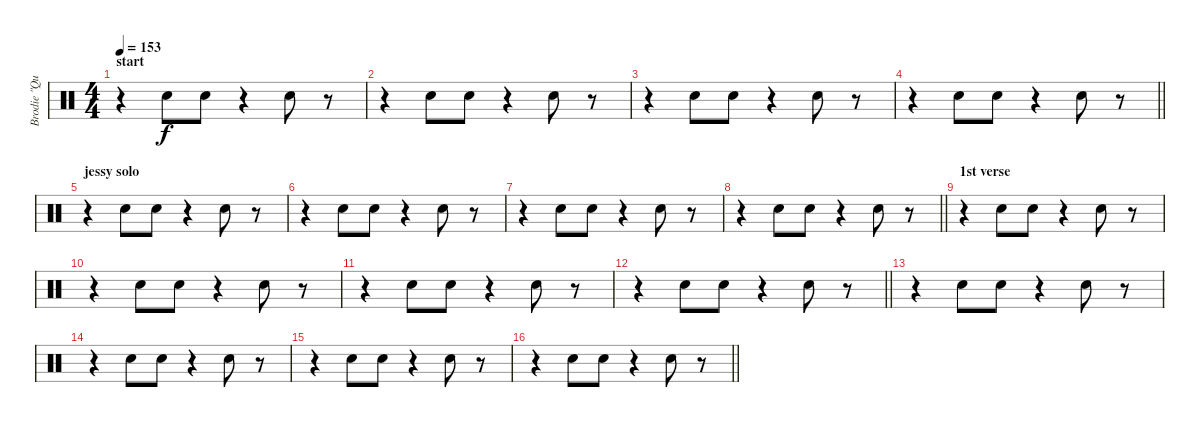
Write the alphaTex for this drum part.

\track ("Brodie \"Queen Be\" Dalle" "Brodie \"Qu") {instrument percussion}
\staff {score}
\articulation defaults
\ts (4 4)
\section ("" "start")
\tempo 153
\clef neutral
\ks c
r.4{dy f} "Hand Clap (hit)".8 "Hand Clap (hit)".8 r.4 "Hand Clap (hit)".8 r.8 |
r.4 "Hand Clap (hit)".8 "Hand Clap (hit)".8 r.4 "Hand Clap (hit)".8 r.8 |
r.4 "Hand Clap (hit)".8 "Hand Clap (hit)".8 r.4 "Hand Clap (hit)".8 r.8 |
\barLineRight lightlight
r.4 "Hand Clap (hit)".8 "Hand Clap (hit)".8 r.4 "Hand Clap (hit)".8 r.8 |
\section ("" "jessy solo")
r.4 "Hand Clap (hit)".8 "Hand Clap (hit)".8 r.4 "Hand Clap (hit)".8 r.8 |
r.4 "Hand Clap (hit)".8 "Hand Clap (hit)".8 r.4 "Hand Clap (hit)".8 r.8 |
r.4 "Hand Clap (hit)".8 "Hand Clap (hit)".8 r.4 "Hand Clap (hit)".8 r.8 |
\barLineRight lightlight
r.4 "Hand Clap (hit)".8 "Hand Clap (hit)".8 r.4 "Hand Clap (hit)".8 r.8 |
\section ("" "1st verse")
r.4 "Hand Clap (hit)".8 "Hand Clap (hit)".8 r.4 "Hand Clap (hit)".8 r.8 |
r.4 "Hand Clap (hit)".8 "Hand Clap (hit)".8 r.4 "Hand Clap (hit)".8 r.8 |
r.4 "Hand Clap (hit)".8 "Hand Clap (hit)".8 r.4 "Hand Clap (hit)".8 r.8 |
\barLineRight lightlight
r.4 "Hand Clap (hit)".8 "Hand Clap (hit)".8 r.4 "Hand Clap (hit)".8 r.8 |
\section ("" "")
r.4 "Hand Clap (hit)".8 "Hand Clap (hit)".8 r.4 "Hand Clap (hit)".8 r.8 |
r.4 "Hand Clap (hit)".8 "Hand Clap (hit)".8 r.4 "Hand Clap (hit)".8 r.8 |
r.4 "Hand Clap (hit)".8 "Hand Clap (hit)".8 r.4 "Hand Clap (hit)".8 r.8 |
\barLineRight lightlight
r.4 "Hand Clap (hit)".8 "Hand Clap (hit)".8 r.4 "Hand Clap (hit)".8 r.8
